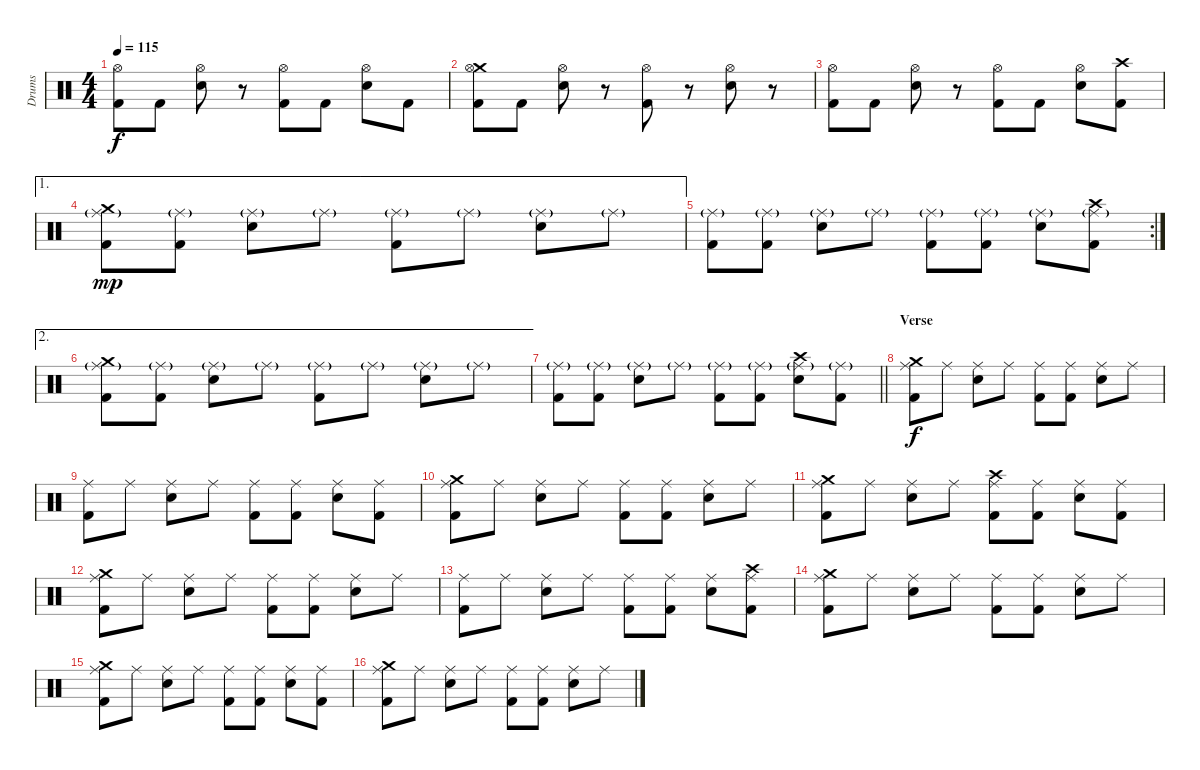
\track ("Drums" "Drums") {instrument percussion}
\staff {score}
\articulation defaults
\ts (4 4)
\tempo 115
\clef neutral
\ks c
("Hi-Hat (open)" "Kick (hit) 2").8{dy f} "Kick (hit) 2".8 ("Hi-Hat (open)" "Snare (hit) 2").8 r.8 ("Hi-Hat (open)" "Kick (hit) 2").8 "Kick (hit) 2".8 ("Hi-Hat (open)" "Snare (hit) 2").8 "Kick (hit) 2".8 |
("Crash medium (hit)" "Hi-Hat (open)" "Kick (hit) 2").8 "Kick (hit) 2".8 ("Hi-Hat (open)" "Snare (hit) 2").8 r.8 ("Hi-Hat (open)" "Kick (hit) 2").8 r.8 ("Hi-Hat (open)" "Snare (hit) 2").8 r.8 |
("Hi-Hat (open)" "Kick (hit) 2").8 "Kick (hit) 2".8 ("Hi-Hat (open)" "Snare (hit) 2").8 r.8 ("Hi-Hat (open)" "Kick (hit) 2").8 "Kick (hit) 2".8 ("Hi-Hat (open)" "Snare (hit) 2").8 ("Crash high (hit)" "Kick (hit) 2").8 |
\ae 1
("Crash medium (hit)" "Ride (middle)"{g} "Kick (hit) 2").8{dy mp} ("Ride (middle)"{g} "Kick (hit) 2").8 ("Ride (middle)"{g} "Snare (hit) 2").8 "Ride (middle)"{g}.8 ("Ride (middle)"{g} "Kick (hit) 2").8 "Ride (middle)"{g}.8 ("Ride (middle)"{g} "Snare (hit) 2").8 "Ride (middle)"{g}.8 |
\rc 2
("Ride (middle)"{g} "Kick (hit) 2").8 ("Ride (middle)"{g} "Kick (hit) 2").8 ("Ride (middle)"{g} "Snare (hit) 2").8 "Ride (middle)"{g}.8 ("Ride (middle)"{g} "Kick (hit) 2").8 ("Ride (middle)"{g} "Kick (hit) 2").8 ("Ride (middle)"{g} "Snare (hit) 2").8 ("Crash high (hit)" "Ride (middle)"{g} "Kick (hit) 2").8 |
\ae 2
("Crash medium (hit)" "Ride (middle)"{g} "Kick (hit) 2").8 ("Ride (middle)"{g} "Kick (hit) 2").8 ("Ride (middle)"{g} "Snare (hit) 2").8 "Ride (middle)"{g}.8 ("Ride (middle)"{g} "Kick (hit) 2").8 "Ride (middle)"{g}.8 ("Ride (middle)"{g} "Snare (hit) 2").8 "Ride (middle)"{g}.8 |
\barLineRight lightlight
("Ride (middle)"{g} "Kick (hit) 2").8 ("Ride (middle)"{g} "Kick (hit) 2").8 ("Ride (middle)"{g} "Snare (hit) 2").8 "Ride (middle)"{g}.8 ("Ride (middle)"{g} "Kick (hit) 2").8 ("Ride (middle)"{g} "Kick (hit) 2").8 ("Crash high (hit)" "Ride (middle)"{g} "Snare (hit) 2").8 ("Ride (middle)"{g} "Kick (hit) 2").8 |
\section ("" "Verse")
("Crash medium (hit)" "Ride (middle)" "Kick (hit) 2").8{dy f} "Ride (middle)".8 ("Ride (middle)" "Snare (hit) 2").8 "Ride (middle)".8 ("Ride (middle)" "Kick (hit) 2").8 ("Ride (middle)" "Kick (hit) 2").8 ("Ride (middle)" "Snare (hit) 2").8 "Ride (middle)".8 |
("Ride (middle)" "Kick (hit) 2").8 "Ride (middle)".8 ("Ride (middle)" "Snare (hit) 2").8 "Ride (middle)".8 ("Ride (middle)" "Kick (hit) 2").8 ("Ride (middle)" "Kick (hit) 2").8 ("Ride (middle)" "Snare (hit) 2").8 ("Ride (middle)" "Kick (hit) 2").8 |
("Crash medium (hit)" "Ride (middle)" "Kick (hit) 2").8 "Ride (middle)".8 ("Ride (middle)" "Snare (hit) 2").8 "Ride (middle)".8 ("Ride (middle)" "Kick (hit) 2").8 ("Ride (middle)" "Kick (hit) 2").8 ("Ride (middle)" "Snare (hit) 2").8 "Ride (middle)".8 |
("Crash medium (hit)" "Ride (middle)" "Kick (hit) 2").8 "Ride (middle)".8 ("Ride (middle)" "Snare (hit) 2").8 "Ride (middle)".8 ("Crash high (hit)" "Ride (middle)" "Kick (hit) 2").8 ("Ride (middle)" "Kick (hit) 2").8 ("Ride (middle)" "Snare (hit) 2").8 ("Ride (middle)" "Kick (hit) 2").8 |
("Crash medium (hit)" "Ride (middle)" "Kick (hit) 2").8 "Ride (middle)".8 ("Ride (middle)" "Snare (hit) 2").8 "Ride (middle)".8 ("Ride (middle)" "Kick (hit) 2").8 ("Ride (middle)" "Kick (hit) 2").8 ("Ride (middle)" "Snare (hit) 2").8 "Ride (middle)".8 |
("Ride (middle)" "Kick (hit) 2").8 "Ride (middle)".8 ("Ride (middle)" "Snare (hit) 2").8 "Ride (middle)".8 ("Ride (middle)" "Kick (hit) 2").8 ("Ride (middle)" "Kick (hit) 2").8 ("Ride (middle)" "Snare (hit) 2").8 ("Crash high (hit)" "Ride (middle)" "Kick (hit) 2").8 |
("Crash medium (hit)" "Ride (middle)" "Kick (hit) 2").8 "Ride (middle)".8 ("Ride (middle)" "Snare (hit) 2").8 "Ride (middle)".8 ("Ride (middle)" "Kick (hit) 2").8 ("Ride (middle)" "Kick (hit) 2").8 ("Ride (middle)" "Snare (hit) 2").8 "Ride (middle)".8 |
("Crash medium (hit)" "Ride (middle)" "Kick (hit) 2").8 "Ride (middle)".8 ("Ride (middle)" "Snare (hit) 2").8 "Ride (middle)".8 ("Ride (middle)" "Kick (hit) 2").8 ("Ride (middle)" "Kick (hit) 2").8 ("Ride (middle)" "Snare (hit) 2").8 ("Ride (middle)" "Kick (hit) 2").8 |
("Crash medium (hit)" "Ride (middle)" "Kick (hit) 2").8 "Ride (middle)".8 ("Ride (middle)" "Snare (hit) 2").8 "Ride (middle)".8 ("Ride (middle)" "Kick (hit) 2").8 ("Ride (middle)" "Kick (hit) 2").8 ("Ride (middle)" "Snare (hit) 2").8 "Ride (middle)".8
